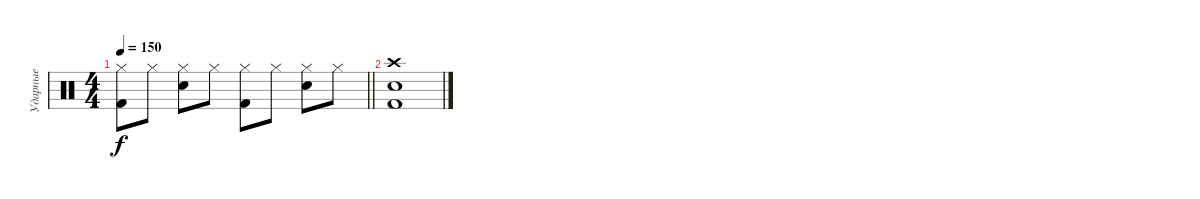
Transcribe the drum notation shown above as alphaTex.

\track ("Ударные" "Ударные") {instrument percussion}
\staff {score}
\articulation defaults
\ts (4 4)
\tempo 150
\clef neutral
\barLineRight lightlight
\ks c
("Hi-Hat (closed)" "Kick (hit) 2").8{dy f} "Hi-Hat (closed)".8 ("Hi-Hat (closed)" "Snare (hit) 2").8 "Hi-Hat (closed)".8 ("Hi-Hat (closed)" "Kick (hit) 2").8 "Hi-Hat (closed)".8 ("Hi-Hat (closed)" "Snare (hit) 2").8 "Hi-Hat (closed)".8 |
("Crash high (hit)" "Snare (hit) 2" "Kick (hit) 2").1
